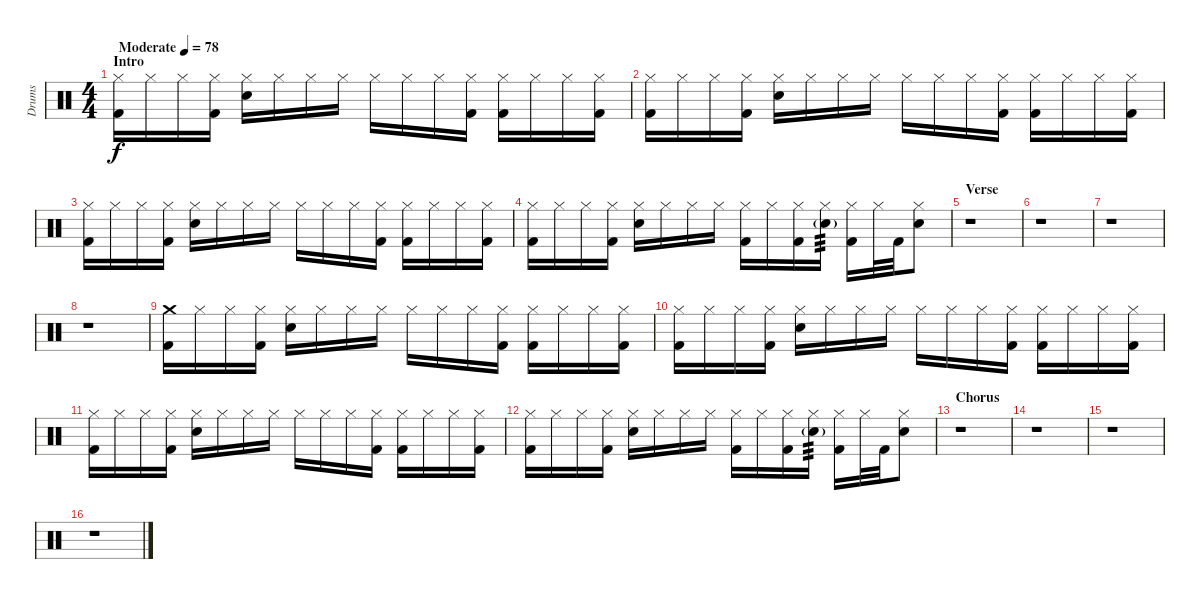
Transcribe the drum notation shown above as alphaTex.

\track ("Drums" "Drums") {instrument percussion}
\staff {score}
\articulation defaults
\ts (4 4)
\section ("" "Intro")
\tempo (78 "Moderate")
\clef neutral
\ks c
("Hi-Hat (closed)" "Kick (hit) 2").16{dy f} "Hi-Hat (closed)".16 "Hi-Hat (closed)".16 ("Hi-Hat (closed)" "Kick (hit) 2").16 ("Hi-Hat (closed)" "Snare (hit) 2").16 "Hi-Hat (closed)".16 "Hi-Hat (closed)".16 "Hi-Hat (closed)".16 "Hi-Hat (closed)".16 "Hi-Hat (closed)".16 "Hi-Hat (closed)".16 ("Hi-Hat (closed)" "Kick (hit) 2").16 ("Hi-Hat (closed)" "Kick (hit) 2").16 "Hi-Hat (closed)".16 "Hi-Hat (closed)".16 ("Hi-Hat (closed)" "Kick (hit) 2").16 |
("Hi-Hat (closed)" "Kick (hit) 2").16 "Hi-Hat (closed)".16 "Hi-Hat (closed)".16 ("Hi-Hat (closed)" "Kick (hit) 2").16 ("Hi-Hat (closed)" "Snare (hit) 2").16 "Hi-Hat (closed)".16 "Hi-Hat (closed)".16 "Hi-Hat (closed)".16 "Hi-Hat (closed)".16 "Hi-Hat (closed)".16 "Hi-Hat (closed)".16 ("Hi-Hat (closed)" "Kick (hit) 2").16 ("Hi-Hat (closed)" "Kick (hit) 2").16 "Hi-Hat (closed)".16 "Hi-Hat (closed)".16 ("Hi-Hat (closed)" "Kick (hit) 2").16 |
("Hi-Hat (closed)" "Kick (hit) 2").16 "Hi-Hat (closed)".16 "Hi-Hat (closed)".16 ("Hi-Hat (closed)" "Kick (hit) 2").16 ("Hi-Hat (closed)" "Snare (hit) 2").16 "Hi-Hat (closed)".16 "Hi-Hat (closed)".16 "Hi-Hat (closed)".16 "Hi-Hat (closed)".16 "Hi-Hat (closed)".16 "Hi-Hat (closed)".16 ("Hi-Hat (closed)" "Kick (hit) 2").16 ("Hi-Hat (closed)" "Kick (hit) 2").16 "Hi-Hat (closed)".16 "Hi-Hat (closed)".16 ("Hi-Hat (closed)" "Kick (hit) 2").16 |
("Hi-Hat (closed)" "Kick (hit) 2").16 "Hi-Hat (closed)".16 "Hi-Hat (closed)".16 ("Hi-Hat (closed)" "Kick (hit) 2").16 ("Hi-Hat (closed)" "Snare (hit) 2").16 "Hi-Hat (closed)".16 "Hi-Hat (closed)".16 "Hi-Hat (closed)".16 ("Hi-Hat (closed)" "Kick (hit) 2").16 "Hi-Hat (closed)".16 ("Hi-Hat (closed)" "Kick (hit) 2").16 ("Hi-Hat (closed)" "Snare (hit) 2"{g}).16{tp 3} ("Hi-Hat (closed)" "Kick (hit) 2").16 "Hi-Hat (closed)".32 "Kick (hit) 2".32 ("Hi-Hat (closed)" "Snare (hit) 2").8 |
\section ("" "Verse")
r.1 |
r.1 |
r.1 |
r.1 |
("Crash medium (hit)" "Kick (hit) 2").16 "Hi-Hat (closed)".16 "Hi-Hat (closed)".16 ("Hi-Hat (closed)" "Kick (hit) 2").16 ("Hi-Hat (closed)" "Snare (hit) 2").16 "Hi-Hat (closed)".16 "Hi-Hat (closed)".16 "Hi-Hat (closed)".16 "Hi-Hat (closed)".16 "Hi-Hat (closed)".16 "Hi-Hat (closed)".16 ("Hi-Hat (closed)" "Kick (hit) 2").16 ("Hi-Hat (closed)" "Kick (hit) 2").16 "Hi-Hat (closed)".16 "Hi-Hat (closed)".16 ("Hi-Hat (closed)" "Kick (hit) 2").16 |
("Hi-Hat (closed)" "Kick (hit) 2").16 "Hi-Hat (closed)".16 "Hi-Hat (closed)".16 ("Hi-Hat (closed)" "Kick (hit) 2").16 ("Hi-Hat (closed)" "Snare (hit) 2").16 "Hi-Hat (closed)".16 "Hi-Hat (closed)".16 "Hi-Hat (closed)".16 "Hi-Hat (closed)".16 "Hi-Hat (closed)".16 "Hi-Hat (closed)".16 ("Hi-Hat (closed)" "Kick (hit) 2").16 ("Hi-Hat (closed)" "Kick (hit) 2").16 "Hi-Hat (closed)".16 "Hi-Hat (closed)".16 ("Hi-Hat (closed)" "Kick (hit) 2").16 |
("Hi-Hat (closed)" "Kick (hit) 2").16 "Hi-Hat (closed)".16 "Hi-Hat (closed)".16 ("Hi-Hat (closed)" "Kick (hit) 2").16 ("Hi-Hat (closed)" "Snare (hit) 2").16 "Hi-Hat (closed)".16 "Hi-Hat (closed)".16 "Hi-Hat (closed)".16 "Hi-Hat (closed)".16 "Hi-Hat (closed)".16 "Hi-Hat (closed)".16 ("Hi-Hat (closed)" "Kick (hit) 2").16 ("Hi-Hat (closed)" "Kick (hit) 2").16 "Hi-Hat (closed)".16 "Hi-Hat (closed)".16 ("Hi-Hat (closed)" "Kick (hit) 2").16 |
("Hi-Hat (closed)" "Kick (hit) 2").16 "Hi-Hat (closed)".16 "Hi-Hat (closed)".16 ("Hi-Hat (closed)" "Kick (hit) 2").16 ("Hi-Hat (closed)" "Snare (hit) 2").16 "Hi-Hat (closed)".16 "Hi-Hat (closed)".16 "Hi-Hat (closed)".16 ("Hi-Hat (closed)" "Kick (hit) 2").16 "Hi-Hat (closed)".16 ("Hi-Hat (closed)" "Kick (hit) 2").16 ("Hi-Hat (closed)" "Snare (hit) 2"{g}).16{tp 3} ("Hi-Hat (closed)" "Kick (hit) 2").16 "Hi-Hat (closed)".32 "Kick (hit) 2".32 ("Hi-Hat (closed)" "Snare (hit) 2").8 |
\section ("" "Chorus")
r.1 |
r.1 |
r.1 |
r.1
